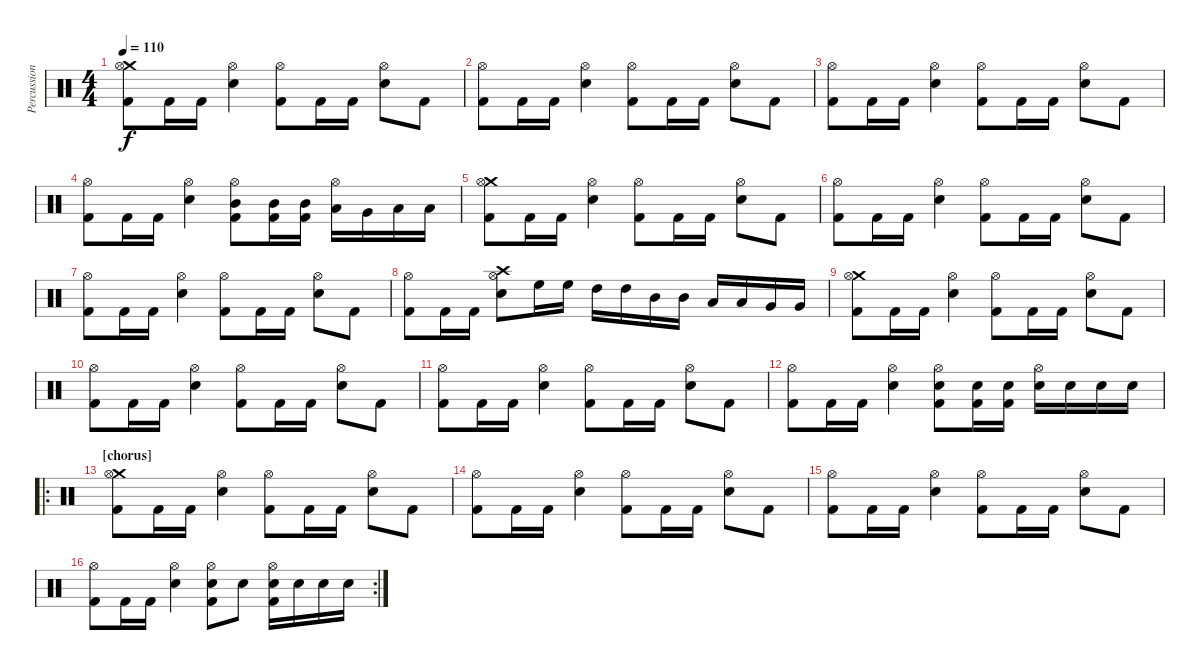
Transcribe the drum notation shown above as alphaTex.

\track ("Percussion" "Percussion") {instrument percussion}
\staff {score}
\articulation defaults
\ts (4 4)
\tempo 110
\clef neutral
\ks c
("Crash medium (hit)" "Hi-Hat (open)" "Kick (hit) 2").8{dy f} "Kick (hit) 2".16 "Kick (hit) 2".16 ("Hi-Hat (open)" "Electric Snare (hit)").4 ("Hi-Hat (open)" "Kick (hit) 2").8 "Kick (hit) 2".16 "Kick (hit) 2".16 ("Hi-Hat (open)" "Electric Snare (hit)").8 "Kick (hit) 2".8 |
("Hi-Hat (open)" "Kick (hit) 2").8 "Kick (hit) 2".16 "Kick (hit) 2".16 ("Hi-Hat (open)" "Electric Snare (hit)").4 ("Hi-Hat (open)" "Kick (hit) 2").8 "Kick (hit) 2".16 "Kick (hit) 2".16 ("Hi-Hat (open)" "Electric Snare (hit)").8 "Kick (hit) 2".8 |
("Hi-Hat (open)" "Kick (hit) 2").8 "Kick (hit) 2".16 "Kick (hit) 2".16 ("Hi-Hat (open)" "Electric Snare (hit)").4 ("Hi-Hat (open)" "Kick (hit) 2").8 "Kick (hit) 2".16 "Kick (hit) 2".16 ("Hi-Hat (open)" "Electric Snare (hit)").8 "Kick (hit) 2".8 |
("Hi-Hat (open)" "Kick (hit) 2").8 "Kick (hit) 2".16 "Kick (hit) 2".16 ("Hi-Hat (open)" "Electric Snare (hit)").4 ("Hi-Hat (open)" "Mid Tom (hit)" "Kick (hit) 2").8 ("Mid Tom (hit)" "Kick (hit) 2").16 ("Mid Tom (hit)" "Kick (hit) 2").16 ("Hi-Hat (open)" "Low Tom (hit)").16 "Very Low Tom (hit)".16 "Low Floor Tom (hit)".16 "Low Floor Tom (hit)".16 |
("Crash medium (hit)" "Hi-Hat (open)" "Kick (hit) 2").8 "Kick (hit) 2".16 "Kick (hit) 2".16 ("Hi-Hat (open)" "Electric Snare (hit)").4 ("Hi-Hat (open)" "Kick (hit) 2").8 "Kick (hit) 2".16 "Kick (hit) 2".16 ("Hi-Hat (open)" "Electric Snare (hit)").8 "Kick (hit) 2".8 |
("Hi-Hat (open)" "Kick (hit) 2").8 "Kick (hit) 2".16 "Kick (hit) 2".16 ("Hi-Hat (open)" "Electric Snare (hit)").4 ("Hi-Hat (open)" "Kick (hit) 2").8 "Kick (hit) 2".16 "Kick (hit) 2".16 ("Hi-Hat (open)" "Electric Snare (hit)").8 "Kick (hit) 2".8 |
("Hi-Hat (open)" "Kick (hit) 2").8 "Kick (hit) 2".16 "Kick (hit) 2".16 ("Hi-Hat (open)" "Electric Snare (hit)").4 ("Hi-Hat (open)" "Kick (hit) 2").8 "Kick (hit) 2".16 "Kick (hit) 2".16 ("Hi-Hat (open)" "Electric Snare (hit)").8 "Kick (hit) 2".8 |
("Hi-Hat (open)" "Kick (hit) 2").8 "Kick (hit) 2".16 "Kick (hit) 2".16 ("Crash high (hit)" "Hi-Hat (open)" "Electric Snare (hit)").8 "High Floor Tom (hit)".16 "High Floor Tom (hit)".16 "High Tom (hit)".16 "High Tom (hit)".16 "Mid Tom (hit)".16 "Mid Tom (hit)".16 "Low Tom (hit)".16 "Low Tom (hit)".16 "Very Low Tom (hit)".16 "Very Low Tom (hit)".16 |
("Crash medium (hit)" "Hi-Hat (open)" "Kick (hit) 2").8 "Kick (hit) 2".16 "Kick (hit) 2".16 ("Hi-Hat (open)" "Electric Snare (hit)").4 ("Hi-Hat (open)" "Kick (hit) 2").8 "Kick (hit) 2".16 "Kick (hit) 2".16 ("Hi-Hat (open)" "Electric Snare (hit)").8 "Kick (hit) 2".8 |
("Hi-Hat (open)" "Kick (hit) 2").8 "Kick (hit) 2".16 "Kick (hit) 2".16 ("Hi-Hat (open)" "Electric Snare (hit)").4 ("Hi-Hat (open)" "Kick (hit) 2").8 "Kick (hit) 2".16 "Kick (hit) 2".16 ("Hi-Hat (open)" "Electric Snare (hit)").8 "Kick (hit) 2".8 |
("Hi-Hat (open)" "Kick (hit) 2").8 "Kick (hit) 2".16 "Kick (hit) 2".16 ("Hi-Hat (open)" "Electric Snare (hit)").4 ("Hi-Hat (open)" "Kick (hit) 2").8 "Kick (hit) 2".16 "Kick (hit) 2".16 ("Hi-Hat (open)" "Electric Snare (hit)").8 "Kick (hit) 2".8 |
("Hi-Hat (open)" "Kick (hit) 2").8 "Kick (hit) 2".16 "Kick (hit) 2".16 ("Hi-Hat (open)" "Electric Snare (hit)").4 ("Hi-Hat (open)" "Electric Snare (hit)" "Kick (hit) 2").8 ("Electric Snare (hit)" "Kick (hit) 2").16 ("Electric Snare (hit)" "Kick (hit) 2").16 ("Hi-Hat (open)" "Electric Snare (hit)").16 "Electric Snare (hit)".16 "Electric Snare (hit)".16 "Electric Snare (hit)".16 |
\ro
\section ("" "[chorus]")
("Crash medium (hit)" "Hi-Hat (open)" "Kick (hit) 2").8 "Kick (hit) 2".16 "Kick (hit) 2".16 ("Hi-Hat (open)" "Electric Snare (hit)").4 ("Hi-Hat (open)" "Kick (hit) 2").8 "Kick (hit) 2".16 "Kick (hit) 2".16 ("Hi-Hat (open)" "Electric Snare (hit)").8 "Kick (hit) 2".8 |
("Hi-Hat (open)" "Kick (hit) 2").8 "Kick (hit) 2".16 "Kick (hit) 2".16 ("Hi-Hat (open)" "Electric Snare (hit)").4 ("Hi-Hat (open)" "Kick (hit) 2").8 "Kick (hit) 2".16 "Kick (hit) 2".16 ("Hi-Hat (open)" "Electric Snare (hit)").8 "Kick (hit) 2".8 |
("Hi-Hat (open)" "Kick (hit) 2").8 "Kick (hit) 2".16 "Kick (hit) 2".16 ("Hi-Hat (open)" "Electric Snare (hit)").4 ("Hi-Hat (open)" "Kick (hit) 2").8 "Kick (hit) 2".16 "Kick (hit) 2".16 ("Hi-Hat (open)" "Electric Snare (hit)").8 "Kick (hit) 2".8 |
\rc 2
("Hi-Hat (open)" "Kick (hit) 2").8 "Kick (hit) 2".16 "Kick (hit) 2".16 ("Hi-Hat (open)" "Electric Snare (hit)").4 ("Hi-Hat (open)" "Electric Snare (hit)" "Kick (hit) 2").8 "Electric Snare (hit)".8 ("Hi-Hat (open)" "Electric Snare (hit)" "Kick (hit) 2").16 "Electric Snare (hit)".16 "Electric Snare (hit)".16 "Electric Snare (hit)".16
